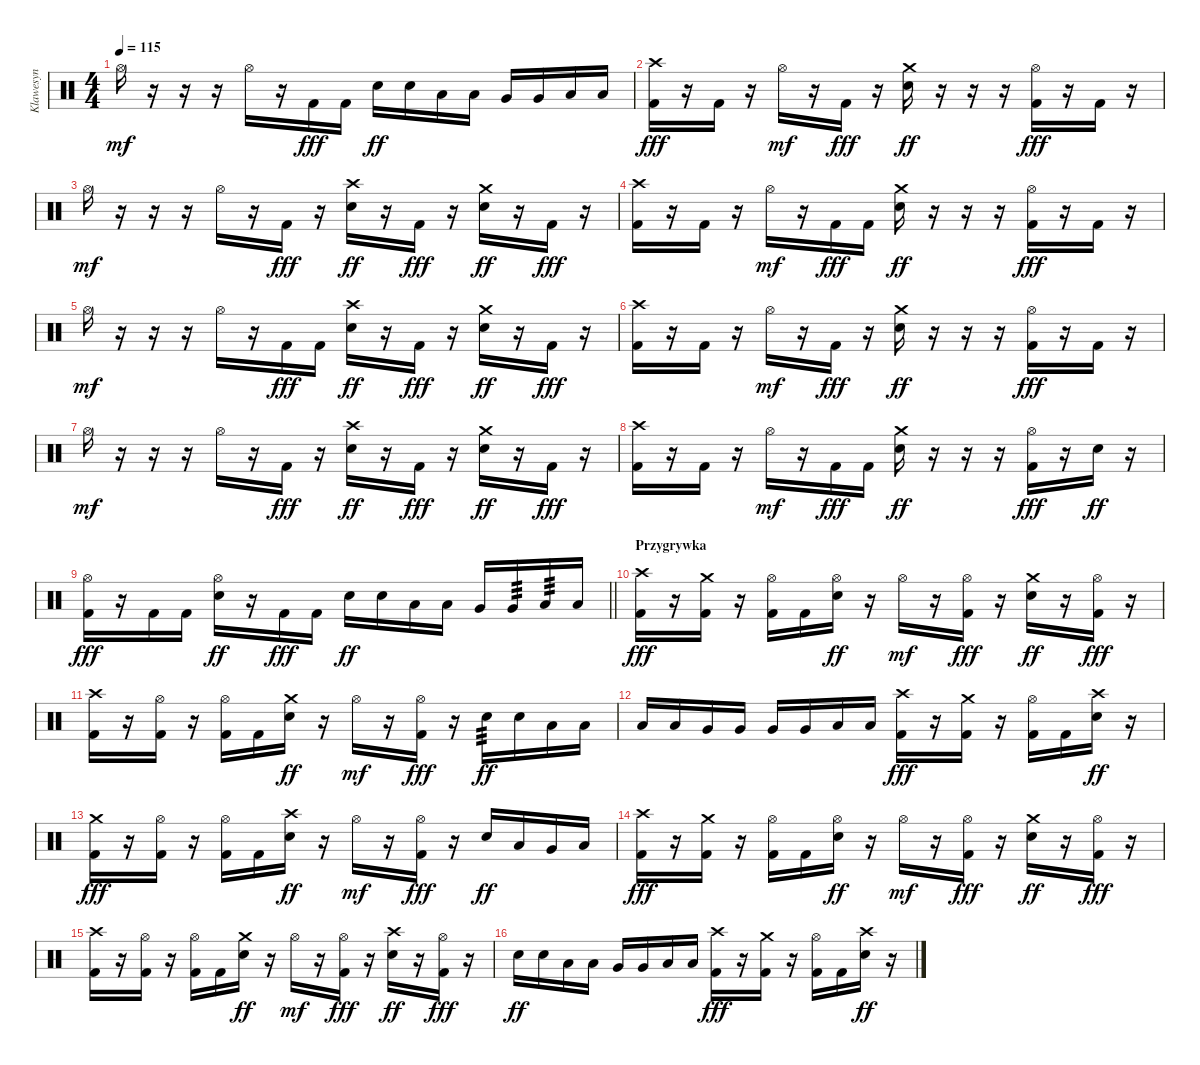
\track ("Klawesyn" "Klawesyn") {instrument percussion}
\staff {score}
\articulation defaults
\ts (4 4)
\tempo 115
\clef neutral
\ks c "Hi-Hat (open)".16{dy mf}
r.16 r.16 r.16 "Hi-Hat (open)".16 r.16 "Kick (hit) 2".16{dy fff} "Kick (hit) 2".16 "Electric Snare (hit)".16{dy ff} "Electric Snare (hit)".16 "Low Tom (hit)".16 "Low Tom (hit)".16 "Very Low Tom (hit)".16 "Very Low Tom (hit)".16 "Low Floor Tom (hit)".16 "Low Floor Tom (hit)".16 |
("Crash high (hit)" "Kick (hit) 2").16{dy fff} r.16 "Kick (hit) 2".16 r.16 "Hi-Hat (open)".16{dy mf} r.16 "Kick (hit) 2".16{dy fff} r.16 ("Crash medium (hit)" "Electric Snare (hit)").16{dy ff} r.16 r.16 r.16 ("Hi-Hat (open)" "Kick (hit) 2").16{dy fff} r.16 "Kick (hit) 2".16 r.16 |
"Hi-Hat (open)".16{dy mf} r.16 r.16 r.16 "Hi-Hat (open)".16 r.16 "Kick (hit) 2".16{dy fff} r.16 ("Crash high (hit)" "Electric Snare (hit)").16{dy ff} r.16 "Kick (hit) 2".16{dy fff} r.16 ("Crash medium (hit)" "Electric Snare (hit)").16{dy ff} r.16 "Kick (hit) 2".16{dy fff} r.16 |
("Crash high (hit)" "Kick (hit) 2").16 r.16 "Kick (hit) 2".16 r.16 "Hi-Hat (open)".16{dy mf} r.16 "Kick (hit) 2".16{dy fff} "Kick (hit) 2".16 ("Crash medium (hit)" "Electric Snare (hit)").16{dy ff} r.16 r.16 r.16 ("Hi-Hat (open)" "Kick (hit) 2").16{dy fff} r.16 "Kick (hit) 2".16 r.16 |
"Hi-Hat (open)".16{dy mf} r.16 r.16 r.16 "Hi-Hat (open)".16 r.16 "Kick (hit) 2".16{dy fff} "Kick (hit) 2".16 ("Crash high (hit)" "Electric Snare (hit)").16{dy ff} r.16 "Kick (hit) 2".16{dy fff} r.16 ("Crash medium (hit)" "Electric Snare (hit)").16{dy ff} r.16 "Kick (hit) 2".16{dy fff} r.16 |
("Crash high (hit)" "Kick (hit) 2").16 r.16 "Kick (hit) 2".16 r.16 "Hi-Hat (open)".16{dy mf} r.16 "Kick (hit) 2".16{dy fff} r.16 ("Crash medium (hit)" "Electric Snare (hit)").16{dy ff} r.16 r.16 r.16 ("Hi-Hat (open)" "Kick (hit) 2").16{dy fff} r.16 "Kick (hit) 2".16 r.16 |
"Hi-Hat (open)".16{dy mf} r.16 r.16 r.16 "Hi-Hat (open)".16 r.16 "Kick (hit) 2".16{dy fff} r.16 ("Crash high (hit)" "Electric Snare (hit)").16{dy ff} r.16 "Kick (hit) 2".16{dy fff} r.16 ("Crash medium (hit)" "Electric Snare (hit)").16{dy ff} r.16 "Kick (hit) 2".16{dy fff} r.16 |
("Crash high (hit)" "Kick (hit) 2").16 r.16 "Kick (hit) 2".16 r.16 "Hi-Hat (open)".16{dy mf} r.16 "Kick (hit) 2".16{dy fff} "Kick (hit) 2".16 ("Crash medium (hit)" "Electric Snare (hit)").16{dy ff} r.16 r.16 r.16 ("Hi-Hat (open)" "Kick (hit) 2").16{dy fff} r.16 "Electric Snare (hit)".16{dy ff} r.16 |
\barLineRight lightlight
("Hi-Hat (open)" "Kick (hit) 2").16{dy fff} r.16 "Kick (hit) 2".16 "Kick (hit) 2".16 ("Hi-Hat (open)" "Electric Snare (hit)").16{dy ff} r.16 "Kick (hit) 2".16{dy fff} "Kick (hit) 2".16 "Electric Snare (hit)".16{dy ff} "Electric Snare (hit)".16 "Low Tom (hit)".16 "Low Tom (hit)".16 "Very Low Tom (hit)".16 "Very Low Tom (hit)".16{tp 3} "Low Floor Tom (hit)".16{tp 3} "Low Floor Tom (hit)".16 |
\section ("" "Przygrywka")
("Crash high (hit)" "Kick (hit) 2").16{dy fff} r.16 ("Crash medium (hit)" "Kick (hit) 2").16 r.16 ("Hi-Hat (open)" "Kick (hit) 2").16 "Kick (hit) 2".16 ("Hi-Hat (open)" "Electric Snare (hit)").16{dy ff} r.16 "Hi-Hat (open)".16{dy mf} r.16 ("Hi-Hat (open)" "Kick (hit) 2").16{dy fff} r.16 ("Crash medium (hit)" "Electric Snare (hit)").16{dy ff} r.16 ("Hi-Hat (open)" "Kick (hit) 2").16{dy fff} r.16 |
("Crash high (hit)" "Kick (hit) 2").16 r.16 ("Hi-Hat (open)" "Kick (hit) 2").16 r.16 ("Hi-Hat (open)" "Kick (hit) 2").16 "Kick (hit) 2".16 ("Crash medium (hit)" "Electric Snare (hit)").16{dy ff} r.16 "Hi-Hat (open)".16{dy mf} r.16 ("Hi-Hat (open)" "Kick (hit) 2").16{dy fff} r.16 "Electric Snare (hit)".16{tp 3 dy ff} "Electric Snare (hit)".16 "Low Tom (hit)".16 "Low Tom (hit)".16 |
"Low Tom (hit)".16 "Low Tom (hit)".16 "Very Low Tom (hit)".16 "Very Low Tom (hit)".16 "Very Low Tom (hit)".16 "Very Low Tom (hit)".16 "Low Floor Tom (hit)".16 "Low Floor Tom (hit)".16 ("Crash high (hit)" "Kick (hit) 2").16{dy fff} r.16 ("Crash medium (hit)" "Kick (hit) 2").16 r.16 ("Hi-Hat (open)" "Kick (hit) 2").16 "Kick (hit) 2".16 ("Crash high (hit)" "Electric Snare (hit)").16{dy ff} r.16 |
("Crash medium (hit)" "Kick (hit) 2").16{dy fff} r.16 ("Hi-Hat (open)" "Kick (hit) 2").16 r.16 ("Hi-Hat (open)" "Kick (hit) 2").16 "Kick (hit) 2".16 ("Crash high (hit)" "Electric Snare (hit)").16{dy ff} r.16 "Hi-Hat (open)".16{dy mf} r.16 ("Hi-Hat (open)" "Kick (hit) 2").16{dy fff} r.16 "Electric Snare (hit)".16{dy ff} "Low Tom (hit)".16 "Very Low Tom (hit)".16 "Low Floor Tom (hit)".16 |
("Crash high (hit)" "Kick (hit) 2").16{dy fff} r.16 ("Crash medium (hit)" "Kick (hit) 2").16 r.16 ("Hi-Hat (open)" "Kick (hit) 2").16 "Kick (hit) 2".16 ("Hi-Hat (open)" "Electric Snare (hit)").16{dy ff} r.16 "Hi-Hat (open)".16{dy mf} r.16 ("Hi-Hat (open)" "Kick (hit) 2").16{dy fff} r.16 ("Crash medium (hit)" "Electric Snare (hit)").16{dy ff} r.16 ("Hi-Hat (open)" "Kick (hit) 2").16{dy fff} r.16 |
("Crash high (hit)" "Kick (hit) 2").16 r.16 ("Hi-Hat (open)" "Kick (hit) 2").16 r.16 ("Hi-Hat (open)" "Kick (hit) 2").16 "Kick (hit) 2".16 ("Crash medium (hit)" "Electric Snare (hit)").16{dy ff} r.16 "Hi-Hat (open)".16{dy mf} r.16 ("Hi-Hat (open)" "Kick (hit) 2").16{dy fff} r.16 ("Crash high (hit)" "Electric Snare (hit)").16{dy ff} r.16 ("Hi-Hat (open)" "Kick (hit) 2").16{dy fff} r.16 |
"Electric Snare (hit)".16{dy ff} "Electric Snare (hit)".16 "Low Tom (hit)".16 "Low Tom (hit)".16 "Very Low Tom (hit)".16 "Very Low Tom (hit)".16 "Low Floor Tom (hit)".16 "Low Floor Tom (hit)".16 ("Crash high (hit)" "Kick (hit) 2").16{dy fff} r.16 ("Crash medium (hit)" "Kick (hit) 2").16 r.16 ("Hi-Hat (open)" "Kick (hit) 2").16 "Kick (hit) 2".16 ("Crash high (hit)" "Electric Snare (hit)").16{dy ff} r.16
